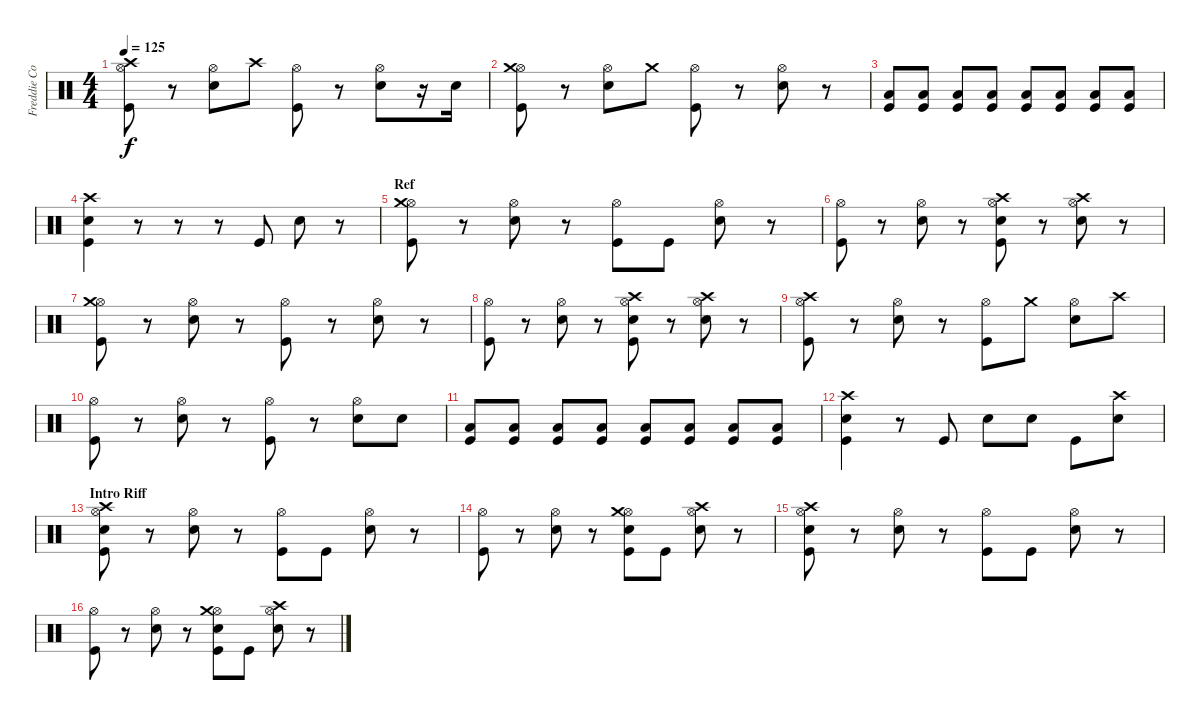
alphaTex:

\track ("Freddie Coury - Drums" "Freddie Co") {instrument percussion}
\staff {score}
\articulation defaults
\ts (4 4)
\tempo 125
\clef neutral
\ks c
("Hi-Hat (open)" "Crash high (hit)" "Kick (hit)").8{dy f} r.8 ("Hi-Hat (open)" "Snare (hit) 2").8 "Crash high (hit)".8 ("Hi-Hat (open)" "Kick (hit)").8 r.8 ("Hi-Hat (open)" "Snare (hit) 2").8 r.16 "Snare (hit) 2".16 |
("Hi-Hat (open)" "Crash medium (hit)" "Kick (hit)").8 r.8 ("Hi-Hat (open)" "Snare (hit) 2").8 "Crash medium (hit)".8 ("Hi-Hat (open)" "Kick (hit)").8 r.8 ("Hi-Hat (open)" "Snare (hit) 2").8 r.8 |
("Kick (hit)" "Low Floor Tom (hit)").8 ("Kick (hit)" "Low Floor Tom (hit)").8 ("Kick (hit)" "Low Floor Tom (hit)").8 ("Kick (hit)" "Low Floor Tom (hit)").8 ("Kick (hit)" "Low Floor Tom (hit)").8 ("Kick (hit)" "Low Floor Tom (hit)").8 ("Kick (hit)" "Low Floor Tom (hit)").8 ("Kick (hit)" "Low Floor Tom (hit)").8 |
("Crash high (hit)" "Snare (hit) 2" "Kick (hit)").4 r.8 r.8 r.8 "Kick (hit)".8 "Snare (hit) 2".8 r.8 |
\section ("" "Ref")
("Hi-Hat (open)" "Crash medium (hit)" "Kick (hit)").8 r.8 ("Hi-Hat (open)" "Snare (hit) 2").8 r.8 ("Hi-Hat (open)" "Kick (hit)").8 "Kick (hit)".8 ("Hi-Hat (open)" "Snare (hit) 2").8 r.8 |
("Hi-Hat (open)" "Kick (hit)").8 r.8 ("Hi-Hat (open)" "Snare (hit) 2").8 r.8 ("Hi-Hat (open)" "Crash high (hit)" "Snare (hit) 2" "Kick (hit)").8 r.8 ("Hi-Hat (open)" "Crash high (hit)" "Snare (hit) 2").8 r.8 |
("Hi-Hat (open)" "Crash medium (hit)" "Kick (hit)").8 r.8 ("Hi-Hat (open)" "Snare (hit) 2").8 r.8 ("Hi-Hat (open)" "Kick (hit)").8 r.8 ("Hi-Hat (open)" "Snare (hit) 2").8 r.8 |
("Hi-Hat (open)" "Kick (hit)").8 r.8 ("Hi-Hat (open)" "Snare (hit) 2").8 r.8 ("Hi-Hat (open)" "Crash high (hit)" "Snare (hit) 2" "Kick (hit)").8 r.8 ("Hi-Hat (open)" "Crash high (hit)" "Snare (hit) 2").8 r.8 |
("Hi-Hat (open)" "Crash high (hit)" "Kick (hit)").8 r.8 ("Hi-Hat (open)" "Snare (hit) 2").8 r.8 ("Hi-Hat (open)" "Kick (hit)").8 "Crash medium (hit)".8 ("Hi-Hat (open)" "Snare (hit) 2").8 "Crash high (hit)".8 |
("Hi-Hat (open)" "Kick (hit)").8 r.8 ("Hi-Hat (open)" "Snare (hit) 2").8 r.8 ("Hi-Hat (open)" "Kick (hit)").8 r.8 ("Hi-Hat (open)" "Snare (hit) 2").8 "Snare (hit) 2".8 |
("Kick (hit)" "Low Floor Tom (hit)").8 ("Kick (hit)" "Low Floor Tom (hit)").8 ("Kick (hit)" "Low Floor Tom (hit)").8 ("Kick (hit)" "Low Floor Tom (hit)").8 ("Kick (hit)" "Low Floor Tom (hit)").8 ("Kick (hit)" "Low Floor Tom (hit)").8 ("Kick (hit)" "Low Floor Tom (hit)").8 ("Kick (hit)" "Low Floor Tom (hit)").8 |
("Crash high (hit)" "Snare (hit) 2" "Kick (hit)").4 r.8 "Kick (hit)".8 "Snare (hit) 2".8 "Snare (hit) 2".8 "Kick (hit)".8 ("Snare (hit) 2" "Crash high (hit)").8 |
\section ("" "Intro Riff")
("Hi-Hat (open)" "Crash high (hit)" "Snare (hit) 2" "Kick (hit)").8 r.8 ("Hi-Hat (open)" "Snare (hit) 2").8 r.8 ("Hi-Hat (open)" "Kick (hit)").8 "Kick (hit)".8 ("Hi-Hat (open)" "Snare (hit) 2").8 r.8 |
("Hi-Hat (open)" "Kick (hit)").8 r.8 ("Hi-Hat (open)" "Snare (hit) 2").8 r.8 ("Hi-Hat (open)" "Crash medium (hit)" "Snare (hit) 2" "Kick (hit)").8 "Kick (hit)".8 ("Hi-Hat (open)" "Crash high (hit)" "Snare (hit) 2").8 r.8 |
("Hi-Hat (open)" "Crash high (hit)" "Snare (hit) 2" "Kick (hit)").8 r.8 ("Hi-Hat (open)" "Snare (hit) 2").8 r.8 ("Hi-Hat (open)" "Kick (hit)").8 "Kick (hit)".8 ("Hi-Hat (open)" "Snare (hit) 2").8 r.8 |
("Hi-Hat (open)" "Kick (hit)").8 r.8 ("Hi-Hat (open)" "Snare (hit) 2").8 r.8 ("Hi-Hat (open)" "Crash medium (hit)" "Snare (hit) 2" "Kick (hit)").8 "Kick (hit)".8 ("Hi-Hat (open)" "Crash high (hit)" "Snare (hit) 2").8 r.8
